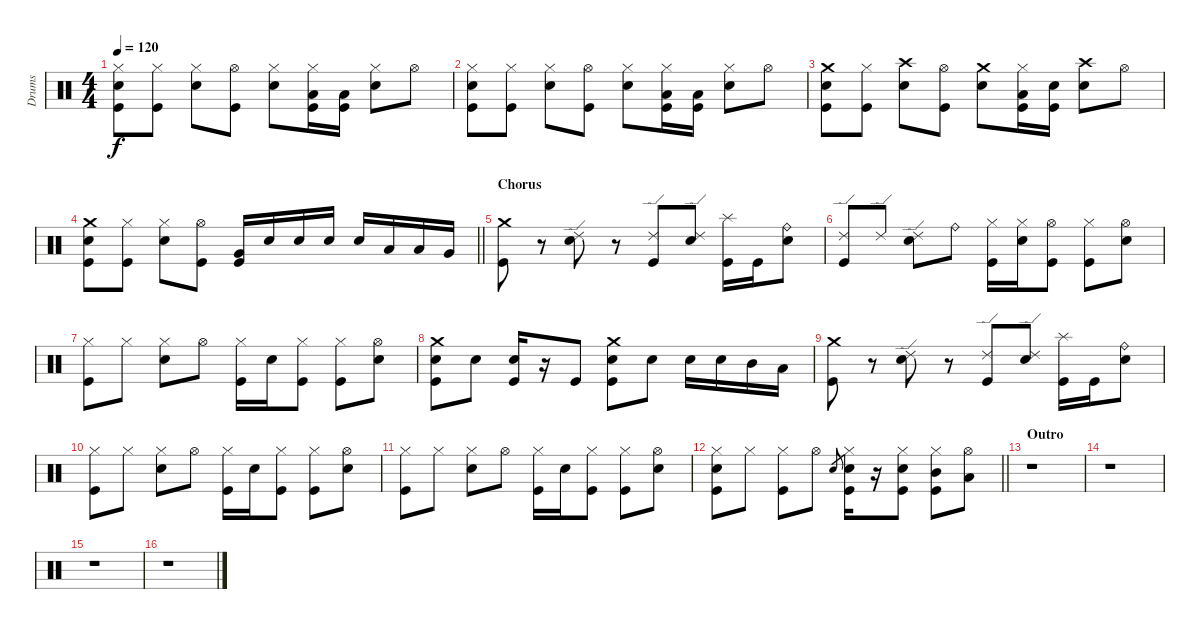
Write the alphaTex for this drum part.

\track ("Drums" "Drums") {instrument percussion}
\staff {score}
\articulation defaults
\ts (4 4)
\tempo 120
\clef neutral
\ks c
("Hi-Hat (closed)" "Snare (hit) 2" "Kick (hit)").8{dy f} ("Hi-Hat (closed)" "Kick (hit)").8 ("Hi-Hat (closed)" "Snare (hit) 2").8 ("Hi-Hat (open)" "Kick (hit)").8 ("Hi-Hat (closed)" "Snare (hit) 2").8 ("Hi-Hat (closed)" "Low Tom (hit)" "Kick (hit)").16 ("Low Tom (hit)" "Kick (hit)").16 ("Hi-Hat (closed)" "Snare (hit) 2").8 "Hi-Hat (open)".8 |
("Hi-Hat (closed)" "Snare (hit) 2" "Kick (hit)").8 ("Hi-Hat (closed)" "Kick (hit)").8 ("Hi-Hat (closed)" "Snare (hit) 2").8 ("Hi-Hat (open)" "Kick (hit)").8 ("Hi-Hat (closed)" "Snare (hit) 2").8 ("Hi-Hat (closed)" "Low Tom (hit)" "Kick (hit)").16 ("Low Tom (hit)" "Kick (hit)").16 ("Hi-Hat (closed)" "Snare (hit) 2").8 "Hi-Hat (open)".8 |
("Crash medium (hit)" "Snare (hit) 2" "Kick (hit)").8 ("Hi-Hat (closed)" "Kick (hit)").8 ("Crash high (hit)" "Snare (hit) 2").8 ("Hi-Hat (open)" "Kick (hit)").8 ("Crash medium (hit)" "Snare (hit) 2").8 ("Hi-Hat (closed)" "Low Tom (hit)" "Kick (hit)").16 ("Snare (hit) 2" "Kick (hit)").16 ("Crash high (hit)" "Snare (hit) 2").8 "Hi-Hat (open)".8 |
\barLineRight lightlight
("Crash medium (hit)" "Snare (hit) 2" "Kick (hit)").8 ("Hi-Hat (closed)" "Kick (hit)").8 ("Hi-Hat (closed)" "Snare (hit) 2").8 ("Hi-Hat (open)" "Kick (hit)").8 ("Very Low Tom (hit)" "Kick (hit)").16 "Snare (hit) 2".16 "Snare (hit) 2".16 "Snare (hit) 2".16 "Snare (hit) 2".16 "Low Tom (hit)".16 "Low Tom (hit)".16 "Very Low Tom (hit)".16 |
\section ("" "Chorus")
("Crash medium (hit)" "Kick (hit)").8 r.8 ("Ride (edge) 2" "Snare (hit) 2").8 r.8 ("Ride (edge) 2" "Kick (hit)").8 ("Ride (edge) 2" "Snare (hit) 2").8 ("Splash (hit)" "Kick (hit)").16 "Kick (hit)".16 ("Ride (bell)" "Snare (hit) 2").8 |
("Ride (edge) 2" "Kick (hit)").8 "Ride (edge) 2".8 ("Ride (edge) 2" "Snare (hit) 2").8 "Ride (bell)".8 ("Hi-Hat (closed)" "Kick (hit)").16 ("Hi-Hat (closed)" "Snare (hit) 2").16 ("Hi-Hat (open)" "Kick (hit)").8 ("Hi-Hat (closed)" "Kick (hit)").8 ("Hi-Hat (open)" "Snare (hit) 2").8 |
("Hi-Hat (closed)" "Kick (hit)").8 "Hi-Hat (closed)".8 ("Hi-Hat (closed)" "Snare (hit) 2").8 "Hi-Hat (open)".8 ("Hi-Hat (closed)" "Kick (hit)").16 "Snare (hit) 2".16 ("Hi-Hat (closed)" "Kick (hit)").8 ("Hi-Hat (closed)" "Kick (hit)").8 ("Hi-Hat (open)" "Snare (hit) 2").8 |
("Crash medium (hit)" "Snare (hit) 2" "Kick (hit)").8 "Snare (hit) 2".8 ("Snare (hit) 2" "Kick (hit)").16 r.16 "Kick (hit)".8 ("Crash medium (hit)" "Snare (hit) 2" "Kick (hit)").8 "Snare (hit) 2".8 "Snare (hit) 2".16 "Snare (hit) 2".16 "Mid Tom (hit)".16 "Low Tom (hit)".16 |
("Crash medium (hit)" "Kick (hit)").8 r.8 ("Ride (edge) 2" "Snare (hit) 2").8 r.8 ("Ride (edge) 2" "Kick (hit)").8 ("Ride (edge) 2" "Snare (hit) 2").8 ("Splash (hit)" "Kick (hit)").16 "Kick (hit)".16 ("Ride (bell)" "Snare (hit) 2").8 |
("Hi-Hat (closed)" "Kick (hit)").8 "Hi-Hat (closed)".8 ("Hi-Hat (closed)" "Snare (hit) 2").8 "Hi-Hat (open)".8 ("Hi-Hat (closed)" "Kick (hit)").16 "Snare (hit) 2".16 ("Hi-Hat (closed)" "Kick (hit)").8 ("Hi-Hat (closed)" "Kick (hit)").8 ("Hi-Hat (open)" "Snare (hit) 2").8 |
("Hi-Hat (closed)" "Kick (hit)").8 "Hi-Hat (closed)".8 ("Hi-Hat (closed)" "Snare (hit) 2").8 "Hi-Hat (open)".8 ("Hi-Hat (closed)" "Kick (hit)").16 "Snare (hit) 2".16 ("Hi-Hat (closed)" "Kick (hit)").8 ("Hi-Hat (closed)" "Kick (hit)").8 ("Hi-Hat (open)" "Snare (hit) 2").8 |
\barLineRight lightlight
("Hi-Hat (closed)" "Snare (hit) 2" "Kick (hit)").8 "Hi-Hat (closed)".8 ("Hi-Hat (closed)" "Kick (hit)").8 "Hi-Hat (open)".8 "Snare (hit) 2".8{gr} ("Hi-Hat (closed)" "Snare (hit) 2" "Kick (hit)").16 r.16 ("Hi-Hat (closed)" "Snare (hit) 2" "Kick (hit)").8 ("Hi-Hat (closed)" "Mid Tom (hit)" "Kick (hit)").8 ("Hi-Hat (open)" "Low Tom (hit)").8 |
\section ("" "Outro")
r.1 |
r.1 |
r.1 |
r.1
